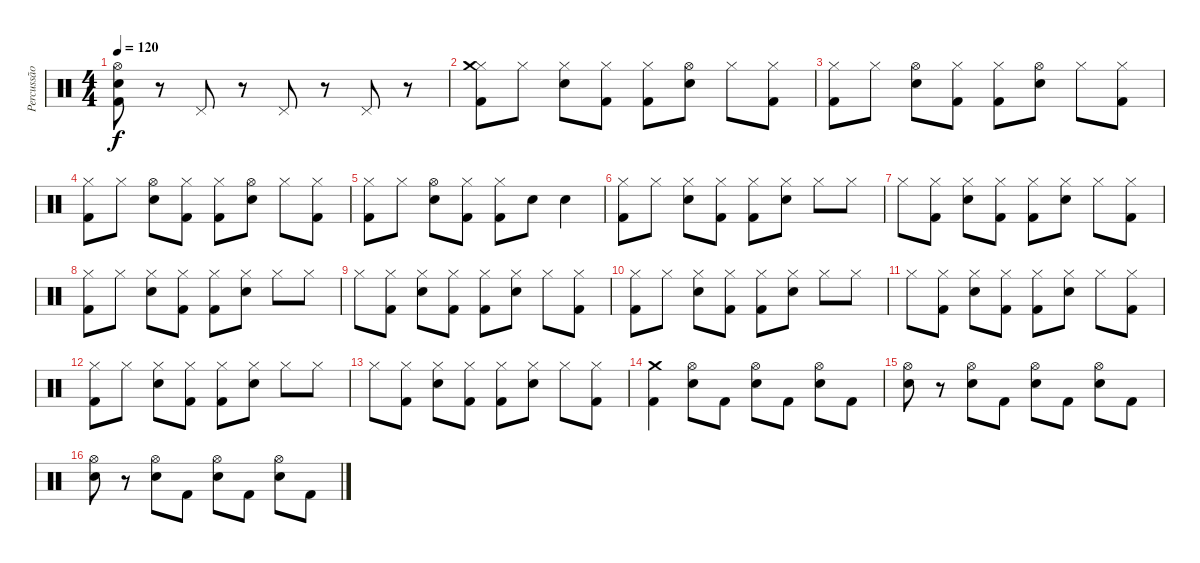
\track ("Percussão" "Percussão") {instrument percussion}
\staff {score}
\articulation defaults
\ts (4 4)
\tempo 120
\clef neutral
\ks c
("Electric Snare (hit)" "Kick (hit) 2" "Hi-Hat (open)").8{dy f} r.8 "Pedal Hi-Hat (hit)".8 r.8 "Pedal Hi-Hat (hit)".8 r.8 "Pedal Hi-Hat (hit)".8 r.8 |
("Kick (hit) 2" "Hi-Hat (closed)" "Crash medium (hit)").8 "Hi-Hat (closed)".8 ("Electric Snare (hit)" "Hi-Hat (closed)").8 ("Kick (hit) 2" "Hi-Hat (closed)").8 ("Kick (hit) 2" "Hi-Hat (closed)").8 ("Electric Snare (hit)" "Hi-Hat (open)").8 "Hi-Hat (closed)".8 ("Kick (hit) 2" "Hi-Hat (closed)").8 |
("Kick (hit) 2" "Hi-Hat (closed)").8 "Hi-Hat (closed)".8 ("Electric Snare (hit)" "Hi-Hat (open)").8 ("Kick (hit) 2" "Hi-Hat (closed)").8 ("Kick (hit) 2" "Hi-Hat (closed)").8 ("Electric Snare (hit)" "Hi-Hat (open)").8 "Hi-Hat (closed)".8 ("Kick (hit) 2" "Hi-Hat (closed)").8 |
("Kick (hit) 2" "Hi-Hat (closed)").8 "Hi-Hat (closed)".8 ("Electric Snare (hit)" "Hi-Hat (open)").8 ("Kick (hit) 2" "Hi-Hat (closed)").8 ("Kick (hit) 2" "Hi-Hat (closed)").8 ("Electric Snare (hit)" "Hi-Hat (open)").8 "Hi-Hat (closed)".8 ("Kick (hit) 2" "Hi-Hat (closed)").8 |
("Kick (hit) 2" "Hi-Hat (closed)").8 "Hi-Hat (closed)".8 ("Electric Snare (hit)" "Hi-Hat (open)").8 ("Kick (hit) 2" "Hi-Hat (closed)").8 ("Kick (hit) 2" "Hi-Hat (closed)").8 "Electric Snare (hit)".8 "Electric Snare (hit)".4 |
("Kick (hit) 2" "Hi-Hat (closed)").8 "Hi-Hat (closed)".8 ("Electric Snare (hit)" "Hi-Hat (closed)").8 ("Kick (hit) 2" "Hi-Hat (closed)").8 ("Kick (hit) 2" "Hi-Hat (closed)").8 ("Electric Snare (hit)" "Hi-Hat (closed)").8 "Hi-Hat (closed)".8 "Hi-Hat (closed)".8 |
"Hi-Hat (closed)".8 ("Kick (hit) 2" "Hi-Hat (closed)").8 ("Electric Snare (hit)" "Hi-Hat (closed)").8 ("Kick (hit) 2" "Hi-Hat (closed)").8 ("Kick (hit) 2" "Hi-Hat (closed)").8 ("Electric Snare (hit)" "Hi-Hat (closed)").8 "Hi-Hat (closed)".8 ("Kick (hit) 2" "Hi-Hat (closed)").8 |
("Kick (hit) 2" "Hi-Hat (closed)").8 "Hi-Hat (closed)".8 ("Electric Snare (hit)" "Hi-Hat (closed)").8 ("Kick (hit) 2" "Hi-Hat (closed)").8 ("Kick (hit) 2" "Hi-Hat (closed)").8 ("Electric Snare (hit)" "Hi-Hat (closed)").8 "Hi-Hat (closed)".8 "Hi-Hat (closed)".8 |
"Hi-Hat (closed)".8 ("Kick (hit) 2" "Hi-Hat (closed)").8 ("Electric Snare (hit)" "Hi-Hat (closed)").8 ("Kick (hit) 2" "Hi-Hat (closed)").8 ("Kick (hit) 2" "Hi-Hat (closed)").8 ("Electric Snare (hit)" "Hi-Hat (closed)").8 "Hi-Hat (closed)".8 ("Kick (hit) 2" "Hi-Hat (closed)").8 |
("Kick (hit) 2" "Hi-Hat (closed)").8 "Hi-Hat (closed)".8 ("Electric Snare (hit)" "Hi-Hat (closed)").8 ("Kick (hit) 2" "Hi-Hat (closed)").8 ("Kick (hit) 2" "Hi-Hat (closed)").8 ("Electric Snare (hit)" "Hi-Hat (closed)").8 "Hi-Hat (closed)".8 "Hi-Hat (closed)".8 |
"Hi-Hat (closed)".8 ("Kick (hit) 2" "Hi-Hat (closed)").8 ("Electric Snare (hit)" "Hi-Hat (closed)").8 ("Kick (hit) 2" "Hi-Hat (closed)").8 ("Kick (hit) 2" "Hi-Hat (closed)").8 ("Electric Snare (hit)" "Hi-Hat (closed)").8 "Hi-Hat (closed)".8 ("Kick (hit) 2" "Hi-Hat (closed)").8 |
("Kick (hit) 2" "Hi-Hat (closed)").8 "Hi-Hat (closed)".8 ("Electric Snare (hit)" "Hi-Hat (closed)").8 ("Kick (hit) 2" "Hi-Hat (closed)").8 ("Kick (hit) 2" "Hi-Hat (closed)").8 ("Electric Snare (hit)" "Hi-Hat (closed)").8 "Hi-Hat (closed)".8 "Hi-Hat (closed)".8 |
"Hi-Hat (closed)".8 ("Kick (hit) 2" "Hi-Hat (closed)").8 ("Electric Snare (hit)" "Hi-Hat (closed)").8 ("Kick (hit) 2" "Hi-Hat (closed)").8 ("Kick (hit) 2" "Hi-Hat (closed)").8 ("Electric Snare (hit)" "Hi-Hat (closed)").8 "Hi-Hat (closed)".8 ("Kick (hit) 2" "Hi-Hat (closed)").8 |
("Kick (hit) 2" "Crash medium (hit)").4 ("Electric Snare (hit)" "Hi-Hat (open)").8 "Kick (hit) 2".8 ("Electric Snare (hit)" "Hi-Hat (open)").8 "Kick (hit) 2".8 ("Electric Snare (hit)" "Hi-Hat (open)").8 "Kick (hit) 2".8 |
("Electric Snare (hit)" "Hi-Hat (open)").8 r.8 ("Electric Snare (hit)" "Hi-Hat (open)").8 "Kick (hit) 2".8 ("Electric Snare (hit)" "Hi-Hat (open)").8 "Kick (hit) 2".8 ("Electric Snare (hit)" "Hi-Hat (open)").8 "Kick (hit) 2".8 |
("Electric Snare (hit)" "Hi-Hat (open)").8 r.8 ("Electric Snare (hit)" "Hi-Hat (open)").8 "Kick (hit) 2".8 ("Electric Snare (hit)" "Hi-Hat (open)").8 "Kick (hit) 2".8 ("Electric Snare (hit)" "Hi-Hat (open)").8 "Kick (hit) 2".8
